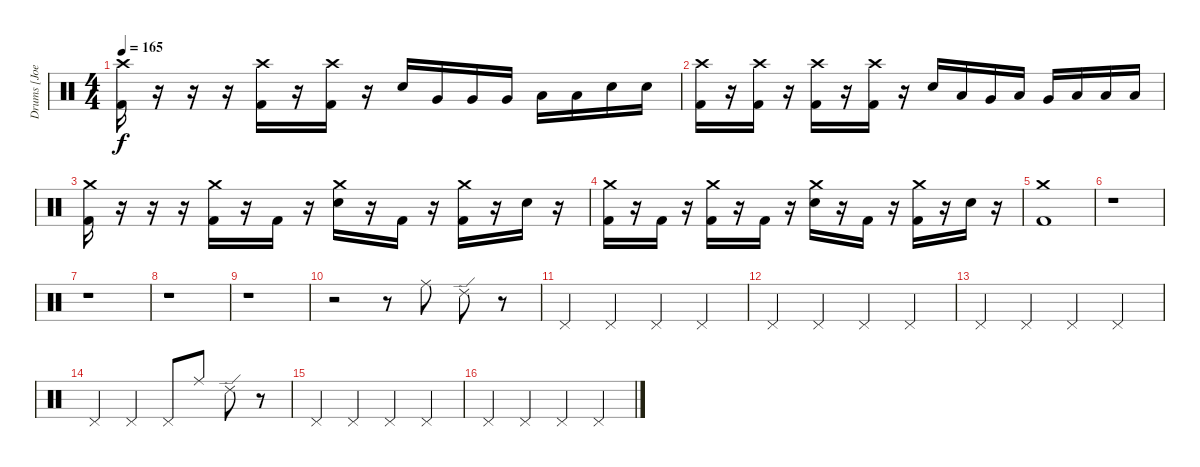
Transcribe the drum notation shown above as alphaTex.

\track ("Drums [Joel Paolucci]" "Drums [Joe") {instrument percussion}
\staff {score}
\articulation defaults
\ts (4 4)
\tempo 165
\clef neutral
\ks c
("Crash high (hit)" "Kick (hit) 2").16{dy f} r.16 r.16 r.16 ("Crash high (hit)" "Kick (hit) 2").16 r.16 ("Crash high (hit)" "Kick (hit) 2").16 r.16 "Electric Snare (hit)".16 "Very Low Tom (hit)".16 "Very Low Tom (hit)".16 "Very Low Tom (hit)".16 "Low Floor Tom (hit)".16 "Low Floor Tom (hit)".16 "Electric Snare (hit)".16 "Electric Snare (hit)".16 |
("Crash high (hit)" "Kick (hit) 2").16 r.16 ("Crash high (hit)" "Kick (hit) 2").16 r.16 ("Crash high (hit)" "Kick (hit) 2").16 r.16 ("Crash high (hit)" "Kick (hit) 2").16 r.16 "Electric Snare (hit)".16 "Low Floor Tom (hit)".16 "Very Low Tom (hit)".16 "Low Floor Tom (hit)".16 "Very Low Tom (hit)".16 "Low Floor Tom (hit)".16 "Low Floor Tom (hit)".16 "Low Floor Tom (hit)".16 |
("Crash medium (hit)" "Kick (hit) 2").16 r.16 r.16 r.16 ("Crash medium (hit)" "Kick (hit) 2").16 r.16 "Kick (hit) 2".16 r.16 ("Crash medium (hit)" "Electric Snare (hit)").16 r.16 "Kick (hit) 2".16 r.16 ("Crash medium (hit)" "Kick (hit) 2").16 r.16 "Electric Snare (hit)".16 r.16 |
("Crash medium (hit)" "Kick (hit) 2").16 r.16 "Kick (hit) 2".16 r.16 ("Crash medium (hit)" "Kick (hit) 2").16 r.16 "Kick (hit) 2".16 r.16 ("Crash medium (hit)" "Electric Snare (hit)").16 r.16 "Kick (hit) 2".16 r.16 ("Crash medium (hit)" "Kick (hit) 2").16 r.16 "Electric Snare (hit)".16 r.16 |
("Crash medium (hit)" "Kick (hit) 2").1 |
r.1 |
r.1 |
r.1 |
r.1 |
r.2 r.8 "Ride (middle)".8 "Ride (edge) 2".8 r.8 |
"Pedal Hi-Hat (hit)".4 "Pedal Hi-Hat (hit)".4 "Pedal Hi-Hat (hit)".4 "Pedal Hi-Hat (hit)".4 |
"Pedal Hi-Hat (hit)".4 "Pedal Hi-Hat (hit)".4 "Pedal Hi-Hat (hit)".4 "Pedal Hi-Hat (hit)".4 |
"Pedal Hi-Hat (hit)".4 "Pedal Hi-Hat (hit)".4 "Pedal Hi-Hat (hit)".4 "Pedal Hi-Hat (hit)".4 |
"Pedal Hi-Hat (hit)".4 "Pedal Hi-Hat (hit)".4 "Pedal Hi-Hat (hit)".8 "Ride (middle)".8 "Ride (edge) 2".8 r.8 |
"Pedal Hi-Hat (hit)".4 "Pedal Hi-Hat (hit)".4 "Pedal Hi-Hat (hit)".4 "Pedal Hi-Hat (hit)".4 |
"Pedal Hi-Hat (hit)".4 "Pedal Hi-Hat (hit)".4 "Pedal Hi-Hat (hit)".4 "Pedal Hi-Hat (hit)".4
